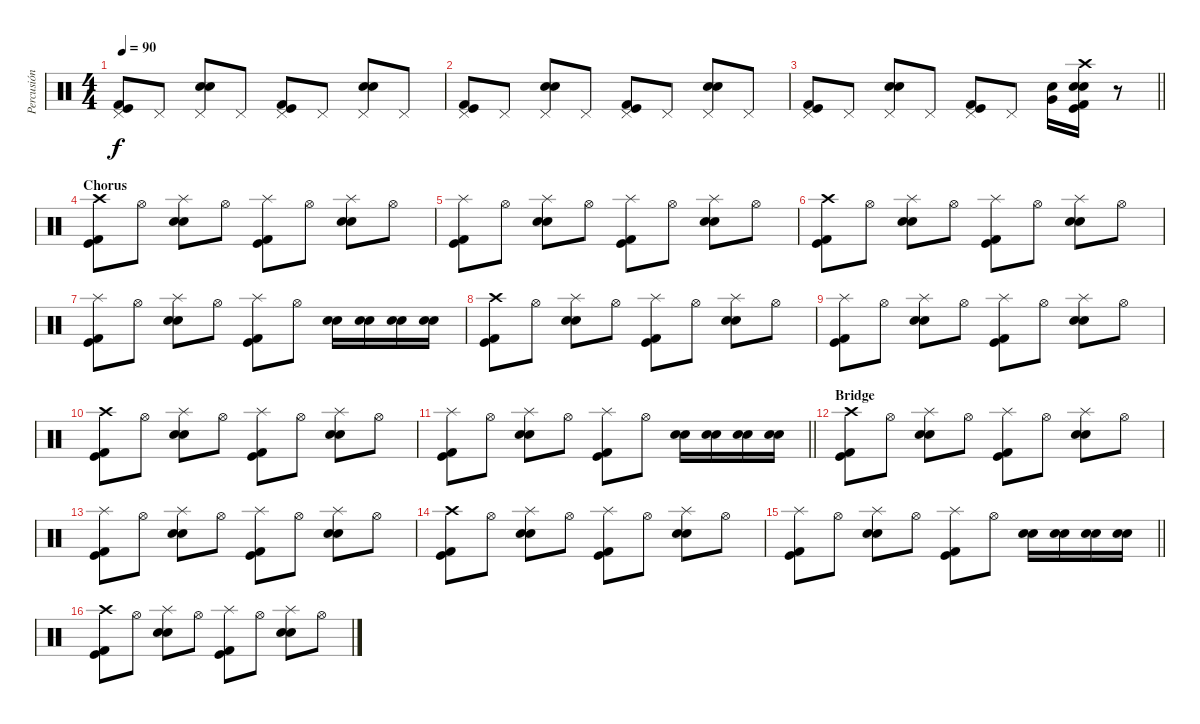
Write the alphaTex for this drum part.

\track ("Percusión" "Percusión") {instrument percussion}
\staff {score}
\articulation defaults
\ts (4 4)
\tempo 90
\clef neutral
\ks c
("Pedal Hi-Hat (hit)" "Kick (hit) 2" "Kick (hit)").8{dy f} "Pedal Hi-Hat (hit)".8 ("Pedal Hi-Hat (hit)" "Electric Snare (hit)" "Snare (hit) 2").8 "Pedal Hi-Hat (hit)".8 ("Pedal Hi-Hat (hit)" "Kick (hit) 2" "Kick (hit)").8 "Pedal Hi-Hat (hit)".8 ("Pedal Hi-Hat (hit)" "Electric Snare (hit)" "Snare (hit) 2").8 "Pedal Hi-Hat (hit)".8 |
("Pedal Hi-Hat (hit)" "Kick (hit) 2" "Kick (hit)").8 "Pedal Hi-Hat (hit)".8 ("Pedal Hi-Hat (hit)" "Electric Snare (hit)" "Snare (hit) 2").8 "Pedal Hi-Hat (hit)".8 ("Pedal Hi-Hat (hit)" "Kick (hit) 2" "Kick (hit)").8 "Pedal Hi-Hat (hit)".8 ("Pedal Hi-Hat (hit)" "Electric Snare (hit)" "Snare (hit) 2").8 "Pedal Hi-Hat (hit)".8 |
\barLineRight lightlight
("Pedal Hi-Hat (hit)" "Kick (hit) 2" "Kick (hit)").8 "Pedal Hi-Hat (hit)".8 ("Pedal Hi-Hat (hit)" "Electric Snare (hit)" "Snare (hit) 2").8 "Pedal Hi-Hat (hit)".8 ("Pedal Hi-Hat (hit)" "Kick (hit) 2" "Kick (hit)").8 "Pedal Hi-Hat (hit)".8 ("Very Low Tom (hit)" "Snare (hit) 2").16 ("Crash high (hit)" "Electric Snare (hit)" "Snare (hit) 2" "Kick (hit) 2" "Kick (hit)").16 r.8 |
\section ("" "Chorus")
("Crash high (hit)" "Kick (hit) 2" "Kick (hit)").8 "Hi-Hat (open)".8 ("Splash (hit)" "Electric Snare (hit)" "Snare (hit) 2").8 "Hi-Hat (open)".8 ("Splash (hit)" "Kick (hit) 2" "Kick (hit)").8 "Hi-Hat (open)".8 ("Splash (hit)" "Electric Snare (hit)" "Snare (hit) 2").8 "Hi-Hat (open)".8 |
("Splash (hit)" "Kick (hit) 2" "Kick (hit)").8 "Hi-Hat (open)".8 ("Splash (hit)" "Electric Snare (hit)" "Snare (hit) 2").8 "Hi-Hat (open)".8 ("Splash (hit)" "Kick (hit) 2" "Kick (hit)").8 "Hi-Hat (open)".8 ("Splash (hit)" "Electric Snare (hit)" "Snare (hit) 2").8 "Hi-Hat (open)".8 |
("Crash high (hit)" "Kick (hit) 2" "Kick (hit)").8 "Hi-Hat (open)".8 ("Splash (hit)" "Electric Snare (hit)" "Snare (hit) 2").8 "Hi-Hat (open)".8 ("Splash (hit)" "Kick (hit) 2" "Kick (hit)").8 "Hi-Hat (open)".8 ("Splash (hit)" "Electric Snare (hit)" "Snare (hit) 2").8 "Hi-Hat (open)".8 |
("Splash (hit)" "Kick (hit) 2" "Kick (hit)").8 "Hi-Hat (open)".8 ("Splash (hit)" "Electric Snare (hit)" "Snare (hit) 2").8 "Hi-Hat (open)".8 ("Splash (hit)" "Kick (hit) 2" "Kick (hit)").8 "Hi-Hat (open)".8 ("Electric Snare (hit)" "Snare (hit) 2").16 ("Electric Snare (hit)" "Snare (hit) 2").16 ("Electric Snare (hit)" "Snare (hit) 2").16 ("Electric Snare (hit)" "Snare (hit) 2").16 |
("Crash high (hit)" "Kick (hit) 2" "Kick (hit)").8 "Hi-Hat (open)".8 ("Splash (hit)" "Electric Snare (hit)" "Snare (hit) 2").8 "Hi-Hat (open)".8 ("Splash (hit)" "Kick (hit) 2" "Kick (hit)").8 "Hi-Hat (open)".8 ("Splash (hit)" "Electric Snare (hit)" "Snare (hit) 2").8 "Hi-Hat (open)".8 |
("Splash (hit)" "Kick (hit) 2" "Kick (hit)").8 "Hi-Hat (open)".8 ("Splash (hit)" "Electric Snare (hit)" "Snare (hit) 2").8 "Hi-Hat (open)".8 ("Splash (hit)" "Kick (hit) 2" "Kick (hit)").8 "Hi-Hat (open)".8 ("Splash (hit)" "Electric Snare (hit)" "Snare (hit) 2").8 "Hi-Hat (open)".8 |
("Crash high (hit)" "Kick (hit) 2" "Kick (hit)").8 "Hi-Hat (open)".8 ("Splash (hit)" "Electric Snare (hit)" "Snare (hit) 2").8 "Hi-Hat (open)".8 ("Splash (hit)" "Kick (hit) 2" "Kick (hit)").8 "Hi-Hat (open)".8 ("Splash (hit)" "Electric Snare (hit)" "Snare (hit) 2").8 "Hi-Hat (open)".8 |
\barLineRight lightlight
("Splash (hit)" "Kick (hit) 2" "Kick (hit)").8 "Hi-Hat (open)".8 ("Splash (hit)" "Electric Snare (hit)" "Snare (hit) 2").8 "Hi-Hat (open)".8 ("Splash (hit)" "Kick (hit) 2" "Kick (hit)").8 "Hi-Hat (open)".8 ("Electric Snare (hit)" "Snare (hit) 2").16 ("Electric Snare (hit)" "Snare (hit) 2").16 ("Electric Snare (hit)" "Snare (hit) 2").16 ("Electric Snare (hit)" "Snare (hit) 2").16 |
\section ("" "Bridge")
("Crash high (hit)" "Kick (hit) 2" "Kick (hit)").8 "Hi-Hat (open)".8 ("Splash (hit)" "Electric Snare (hit)" "Snare (hit) 2").8 "Hi-Hat (open)".8 ("Splash (hit)" "Kick (hit) 2" "Kick (hit)").8 "Hi-Hat (open)".8 ("Splash (hit)" "Electric Snare (hit)" "Snare (hit) 2").8 "Hi-Hat (open)".8 |
("Splash (hit)" "Kick (hit) 2" "Kick (hit)").8 "Hi-Hat (open)".8 ("Splash (hit)" "Electric Snare (hit)" "Snare (hit) 2").8 "Hi-Hat (open)".8 ("Splash (hit)" "Kick (hit) 2" "Kick (hit)").8 "Hi-Hat (open)".8 ("Splash (hit)" "Electric Snare (hit)" "Snare (hit) 2").8 "Hi-Hat (open)".8 |
("Crash high (hit)" "Kick (hit) 2" "Kick (hit)").8 "Hi-Hat (open)".8 ("Splash (hit)" "Electric Snare (hit)" "Snare (hit) 2").8 "Hi-Hat (open)".8 ("Splash (hit)" "Kick (hit) 2" "Kick (hit)").8 "Hi-Hat (open)".8 ("Splash (hit)" "Electric Snare (hit)" "Snare (hit) 2").8 "Hi-Hat (open)".8 |
\barLineRight lightlight
("Splash (hit)" "Kick (hit) 2" "Kick (hit)").8 "Hi-Hat (open)".8 ("Splash (hit)" "Electric Snare (hit)" "Snare (hit) 2").8 "Hi-Hat (open)".8 ("Splash (hit)" "Kick (hit) 2" "Kick (hit)").8 "Hi-Hat (open)".8 ("Electric Snare (hit)" "Snare (hit) 2").16 ("Electric Snare (hit)" "Snare (hit) 2").16 ("Electric Snare (hit)" "Snare (hit) 2").16 ("Electric Snare (hit)" "Snare (hit) 2").16 |
("Crash high (hit)" "Kick (hit) 2" "Kick (hit)").8 "Hi-Hat (open)".8 ("Splash (hit)" "Electric Snare (hit)" "Snare (hit) 2").8 "Hi-Hat (open)".8 ("Splash (hit)" "Kick (hit) 2" "Kick (hit)").8 "Hi-Hat (open)".8 ("Splash (hit)" "Electric Snare (hit)" "Snare (hit) 2").8 "Hi-Hat (open)".8
